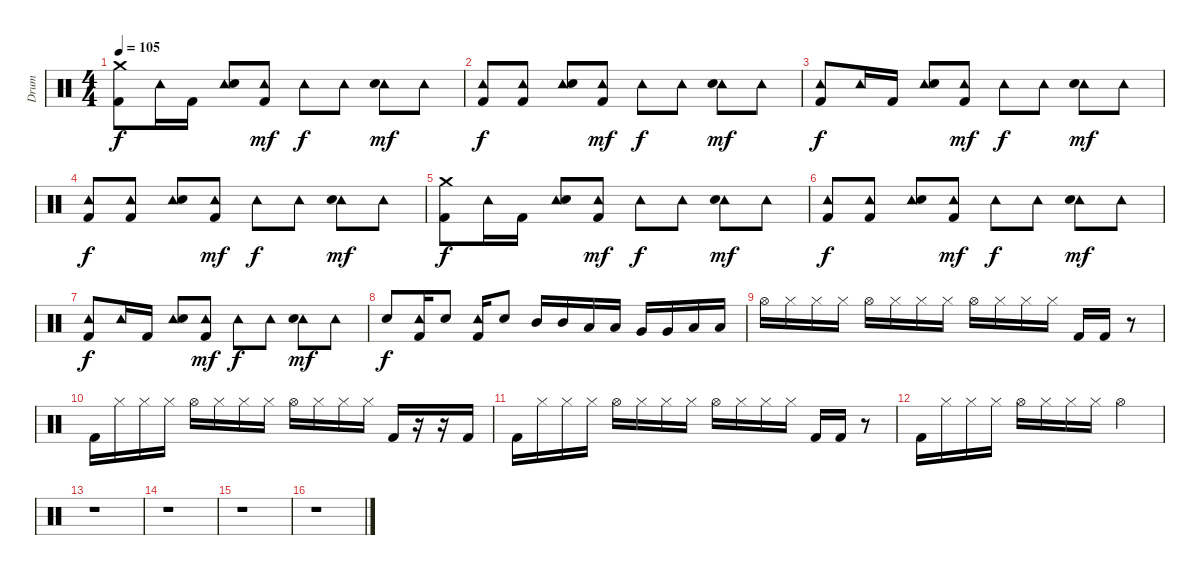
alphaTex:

\track ("Drum" "Drum") {instrument percussion}
\staff {score}
\articulation defaults
\ts (4 4)
\tempo 105
\clef neutral
\ks c
("Crash medium (hit)" "Kick (hit) 2").8{dy f} "Tambourine (hit)".16 "Kick (hit) 2".16 ("Tambourine (hit)" "Electric Snare (hit)").8 ("Tambourine (hit)" "Kick (hit) 2").8{dy mf} "Tambourine (hit)".8{dy f} "Tambourine (hit)".8 ("Tambourine (hit)" "Electric Snare (hit)").8{dy mf} "Tambourine (hit)".8 |
("Tambourine (hit)" "Kick (hit) 2").8{dy f} ("Tambourine (hit)" "Kick (hit) 2").8 ("Tambourine (hit)" "Electric Snare (hit)").8 ("Tambourine (hit)" "Kick (hit) 2").8{dy mf} "Tambourine (hit)".8{dy f} "Tambourine (hit)".8 ("Tambourine (hit)" "Electric Snare (hit)").8{dy mf} "Tambourine (hit)".8 |
("Tambourine (hit)" "Kick (hit) 2").8{dy f} "Tambourine (hit)".16 "Kick (hit) 2".16 ("Tambourine (hit)" "Electric Snare (hit)").8 ("Tambourine (hit)" "Kick (hit) 2").8{dy mf} "Tambourine (hit)".8{dy f} "Tambourine (hit)".8 ("Tambourine (hit)" "Electric Snare (hit)").8{dy mf} "Tambourine (hit)".8 |
("Tambourine (hit)" "Kick (hit) 2").8{dy f} ("Tambourine (hit)" "Kick (hit) 2").8 ("Tambourine (hit)" "Electric Snare (hit)").8 ("Tambourine (hit)" "Kick (hit) 2").8{dy mf} "Tambourine (hit)".8{dy f} "Tambourine (hit)".8 ("Tambourine (hit)" "Electric Snare (hit)").8{dy mf} "Tambourine (hit)".8 |
("Crash medium (hit)" "Kick (hit) 2").8{dy f} "Tambourine (hit)".16 "Kick (hit) 2".16 ("Tambourine (hit)" "Electric Snare (hit)").8 ("Tambourine (hit)" "Kick (hit) 2").8{dy mf} "Tambourine (hit)".8{dy f} "Tambourine (hit)".8 ("Tambourine (hit)" "Electric Snare (hit)").8{dy mf} "Tambourine (hit)".8 |
("Tambourine (hit)" "Kick (hit) 2").8{dy f} ("Tambourine (hit)" "Kick (hit) 2").8 ("Tambourine (hit)" "Electric Snare (hit)").8 ("Tambourine (hit)" "Kick (hit) 2").8{dy mf} "Tambourine (hit)".8{dy f} "Tambourine (hit)".8 ("Tambourine (hit)" "Electric Snare (hit)").8{dy mf} "Tambourine (hit)".8 |
("Tambourine (hit)" "Kick (hit) 2").8{dy f} "Tambourine (hit)".16 "Kick (hit) 2".16 ("Tambourine (hit)" "Electric Snare (hit)").8 ("Tambourine (hit)" "Kick (hit) 2").8{dy mf} "Tambourine (hit)".8{dy f} "Tambourine (hit)".8 ("Tambourine (hit)" "Electric Snare (hit)").8{dy mf} "Tambourine (hit)".8 |
"Electric Snare (hit)".8{dy f} ("Tambourine (hit)" "Kick (hit) 2").16 "Electric Snare (hit)".8 ("Tambourine (hit)" "Kick (hit) 2").16 "Electric Snare (hit)".8 "Mid Tom (hit)".16 "Mid Tom (hit)".16 "Low Tom (hit)".16 "Low Tom (hit)".16 "Very Low Tom (hit)".16 "Very Low Tom (hit)".16 "Low Floor Tom (hit)".16 "Low Floor Tom (hit)".16 |
"Hi-Hat (open)".16 "Hi-Hat (closed)".16 "Hi-Hat (closed)".16 "Hi-Hat (closed)".16 "Hi-Hat (open)".16 "Hi-Hat (closed)".16 "Hi-Hat (closed)".16 "Hi-Hat (closed)".16 "Hi-Hat (open)".16 "Hi-Hat (closed)".16 "Hi-Hat (closed)".16 "Hi-Hat (closed)".16 "Kick (hit) 2".16 "Kick (hit) 2".16 r.8 |
"Kick (hit) 2".16 "Hi-Hat (closed)".16 "Hi-Hat (closed)".16 "Hi-Hat (closed)".16 "Hi-Hat (open)".16 "Hi-Hat (closed)".16 "Hi-Hat (closed)".16 "Hi-Hat (closed)".16 "Hi-Hat (open)".16 "Hi-Hat (closed)".16 "Hi-Hat (closed)".16 "Hi-Hat (closed)".16 "Kick (hit) 2".16 r.16 r.16 "Kick (hit) 2".16 |
"Kick (hit) 2".16 "Hi-Hat (closed)".16 "Hi-Hat (closed)".16 "Hi-Hat (closed)".16 "Hi-Hat (open)".16 "Hi-Hat (closed)".16 "Hi-Hat (closed)".16 "Hi-Hat (closed)".16 "Hi-Hat (open)".16 "Hi-Hat (closed)".16 "Hi-Hat (closed)".16 "Hi-Hat (closed)".16 "Kick (hit) 2".16 "Kick (hit) 2".16 r.8 |
"Kick (hit) 2".16 "Hi-Hat (closed)".16 "Hi-Hat (closed)".16 "Hi-Hat (closed)".16 "Hi-Hat (open)".16 "Hi-Hat (closed)".16 "Hi-Hat (closed)".16 "Hi-Hat (closed)".16 "Hi-Hat (open)".2 |
r.1 |
r.1 |
r.1 |
r.1
